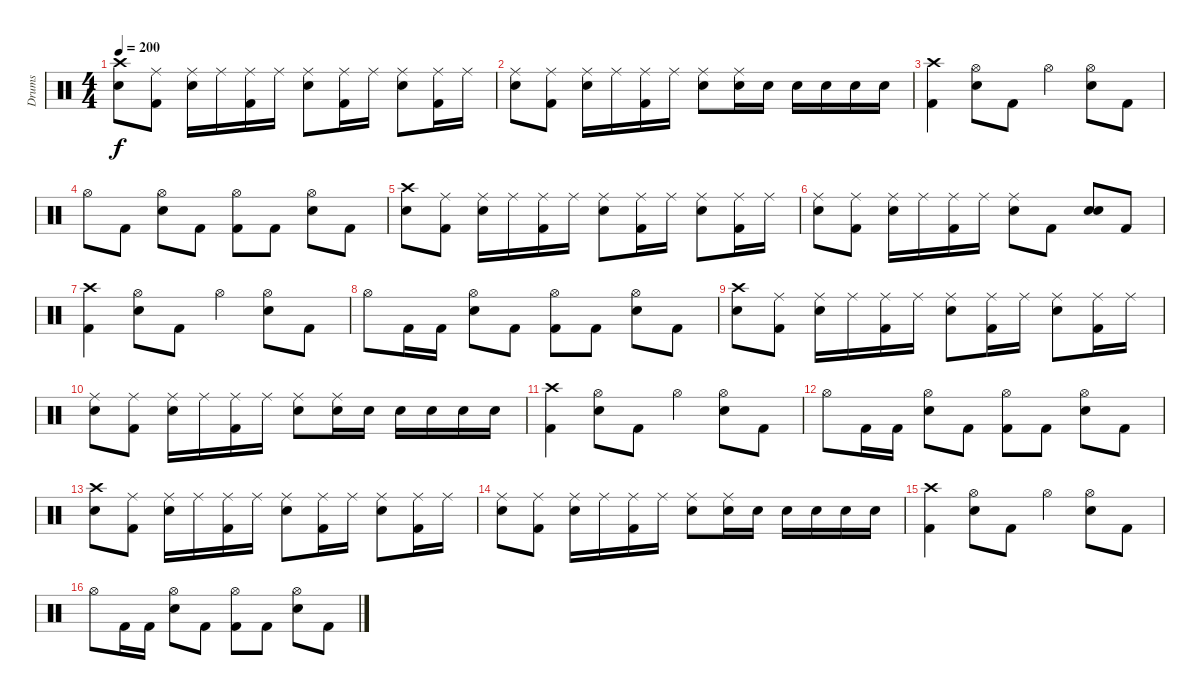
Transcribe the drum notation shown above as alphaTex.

\track ("Drums" "Drums") {instrument percussion}
\staff {score}
\articulation defaults
\ts (4 4)
\tempo 200
\clef neutral
\ks c
("Electric Snare (hit)" "Crash high (hit)").8{dy f} ("Kick (hit) 2" "Ride (middle)").8 ("Electric Snare (hit)" "Ride (middle)").16 "Ride (middle)".16 ("Kick (hit) 2" "Ride (middle)").16 "Ride (middle)".16 ("Electric Snare (hit)" "Ride (middle)").8 ("Kick (hit) 2" "Ride (middle)").16 "Ride (middle)".16 ("Electric Snare (hit)" "Ride (middle)").8 ("Kick (hit) 2" "Ride (middle)").16 "Ride (middle)".16 |
("Electric Snare (hit)" "Ride (middle)").8 ("Kick (hit) 2" "Ride (middle)").8 ("Electric Snare (hit)" "Ride (middle)").16 "Ride (middle)".16 ("Kick (hit) 2" "Ride (middle)").16 "Ride (middle)".16 ("Electric Snare (hit)" "Ride (middle)").8 ("Electric Snare (hit)" "Ride (middle)").16 "Electric Snare (hit)".16 "Electric Snare (hit)".16 "Electric Snare (hit)".16 "Electric Snare (hit)".16 "Electric Snare (hit)".16 |
("Kick (hit) 2" "Crash high (hit)").4 ("Electric Snare (hit)" "Hi-Hat (open)").8 "Kick (hit) 2".8 "Hi-Hat (open)".4 ("Electric Snare (hit)" "Hi-Hat (open)").8 "Kick (hit) 2".8 |
"Hi-Hat (open)".8 "Kick (hit) 2".8 ("Electric Snare (hit)" "Hi-Hat (open)").8 "Kick (hit) 2".8 ("Kick (hit) 2" "Hi-Hat (open)").8 "Kick (hit) 2".8 ("Electric Snare (hit)" "Hi-Hat (open)").8 "Kick (hit) 2".8 |
("Electric Snare (hit)" "Crash high (hit)").8 ("Kick (hit) 2" "Ride (middle)").8 ("Electric Snare (hit)" "Ride (middle)").16 "Ride (middle)".16 ("Kick (hit) 2" "Ride (middle)").16 "Ride (middle)".16 ("Electric Snare (hit)" "Ride (middle)").8 ("Kick (hit) 2" "Ride (middle)").16 "Ride (middle)".16 ("Electric Snare (hit)" "Ride (middle)").8 ("Kick (hit) 2" "Ride (middle)").16 "Ride (middle)".16 |
("Electric Snare (hit)" "Ride (middle)").8 ("Kick (hit) 2" "Ride (middle)").8 ("Electric Snare (hit)" "Ride (middle)").16 "Ride (middle)".16 ("Kick (hit) 2" "Ride (middle)").16 "Ride (middle)".16 ("Electric Snare (hit)" "Ride (middle)").8 "Kick (hit) 2".8 ("Electric Snare (hit)" "Electric Snare (hit)").8 "Kick (hit) 2".8 |
("Kick (hit) 2" "Crash high (hit)").4 ("Electric Snare (hit)" "Hi-Hat (open)").8 "Kick (hit) 2".8 "Hi-Hat (open)".4 ("Electric Snare (hit)" "Hi-Hat (open)").8 "Kick (hit) 2".8 |
"Hi-Hat (open)".8 "Kick (hit) 2".16 "Kick (hit) 2".16 ("Electric Snare (hit)" "Hi-Hat (open)").8 "Kick (hit) 2".8 ("Kick (hit) 2" "Hi-Hat (open)").8 "Kick (hit) 2".8 ("Electric Snare (hit)" "Hi-Hat (open)").8 "Kick (hit) 2".8 |
("Electric Snare (hit)" "Crash high (hit)").8 ("Kick (hit) 2" "Ride (middle)").8 ("Electric Snare (hit)" "Ride (middle)").16 "Ride (middle)".16 ("Kick (hit) 2" "Ride (middle)").16 "Ride (middle)".16 ("Electric Snare (hit)" "Ride (middle)").8 ("Kick (hit) 2" "Ride (middle)").16 "Ride (middle)".16 ("Electric Snare (hit)" "Ride (middle)").8 ("Kick (hit) 2" "Ride (middle)").16 "Ride (middle)".16 |
("Electric Snare (hit)" "Ride (middle)").8 ("Kick (hit) 2" "Ride (middle)").8 ("Electric Snare (hit)" "Ride (middle)").16 "Ride (middle)".16 ("Kick (hit) 2" "Ride (middle)").16 "Ride (middle)".16 ("Electric Snare (hit)" "Ride (middle)").8 ("Electric Snare (hit)" "Ride (middle)").16 "Electric Snare (hit)".16 "Electric Snare (hit)".16 "Electric Snare (hit)".16 "Electric Snare (hit)".16 "Electric Snare (hit)".16 |
("Kick (hit) 2" "Crash high (hit)").4 ("Electric Snare (hit)" "Hi-Hat (open)").8 "Kick (hit) 2".8 "Hi-Hat (open)".4 ("Electric Snare (hit)" "Hi-Hat (open)").8 "Kick (hit) 2".8 |
"Hi-Hat (open)".8 "Kick (hit) 2".16 "Kick (hit) 2".16 ("Electric Snare (hit)" "Hi-Hat (open)").8 "Kick (hit) 2".8 ("Kick (hit) 2" "Hi-Hat (open)").8 "Kick (hit) 2".8 ("Electric Snare (hit)" "Hi-Hat (open)").8 "Kick (hit) 2".8 |
("Electric Snare (hit)" "Crash high (hit)").8 ("Kick (hit) 2" "Ride (middle)").8 ("Electric Snare (hit)" "Ride (middle)").16 "Ride (middle)".16 ("Kick (hit) 2" "Ride (middle)").16 "Ride (middle)".16 ("Electric Snare (hit)" "Ride (middle)").8 ("Kick (hit) 2" "Ride (middle)").16 "Ride (middle)".16 ("Electric Snare (hit)" "Ride (middle)").8 ("Kick (hit) 2" "Ride (middle)").16 "Ride (middle)".16 |
("Electric Snare (hit)" "Ride (middle)").8 ("Kick (hit) 2" "Ride (middle)").8 ("Electric Snare (hit)" "Ride (middle)").16 "Ride (middle)".16 ("Kick (hit) 2" "Ride (middle)").16 "Ride (middle)".16 ("Electric Snare (hit)" "Ride (middle)").8 ("Electric Snare (hit)" "Ride (middle)").16 "Electric Snare (hit)".16 "Electric Snare (hit)".16 "Electric Snare (hit)".16 "Electric Snare (hit)".16 "Electric Snare (hit)".16 |
("Kick (hit) 2" "Crash high (hit)").4 ("Electric Snare (hit)" "Hi-Hat (open)").8 "Kick (hit) 2".8 "Hi-Hat (open)".4 ("Electric Snare (hit)" "Hi-Hat (open)").8 "Kick (hit) 2".8 |
"Hi-Hat (open)".8 "Kick (hit) 2".16 "Kick (hit) 2".16 ("Electric Snare (hit)" "Hi-Hat (open)").8 "Kick (hit) 2".8 ("Kick (hit) 2" "Hi-Hat (open)").8 "Kick (hit) 2".8 ("Electric Snare (hit)" "Hi-Hat (open)").8 "Kick (hit) 2".8
